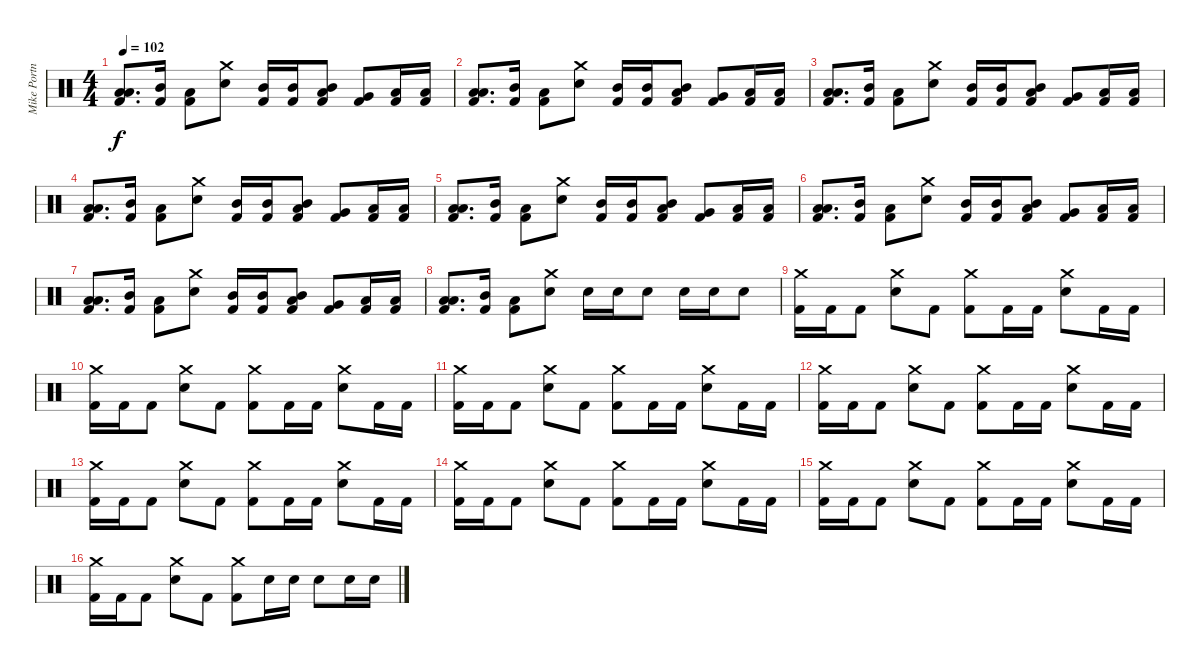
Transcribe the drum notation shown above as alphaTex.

\track ("Mike Portnoy Drum " "Mike Portn") {instrument percussion}
\staff {score}
\articulation defaults
\ts (4 4)
\tempo 102
\clef neutral
\ks c
("Low Tom (hit)" "Low Floor Tom (hit)" "Kick (hit) 2").8{d dy f} ("Mid Tom (hit)" "Kick (hit) 2").16 ("Low Floor Tom (hit)" "Kick (hit) 2").8 ("Crash medium (hit)" "Electric Snare (hit)").8 ("Mid Tom (hit)" "Kick (hit) 2").16 ("Mid Tom (hit)" "Kick (hit) 2").16 ("Mid Tom (hit)" "Low Tom (hit)" "Kick (hit) 2").8 ("Very Low Tom (hit)" "Kick (hit) 2").8 ("Low Floor Tom (hit)" "Kick (hit) 2").16 ("Low Floor Tom (hit)" "Kick (hit) 2").16 |
("Low Tom (hit)" "Low Floor Tom (hit)" "Kick (hit) 2").8{d} ("Mid Tom (hit)" "Kick (hit) 2").16 ("Low Floor Tom (hit)" "Kick (hit) 2").8 ("Crash medium (hit)" "Electric Snare (hit)").8 ("Mid Tom (hit)" "Kick (hit) 2").16 ("Mid Tom (hit)" "Kick (hit) 2").16 ("Mid Tom (hit)" "Low Tom (hit)" "Kick (hit) 2").8 ("Very Low Tom (hit)" "Kick (hit) 2").8 ("Low Floor Tom (hit)" "Kick (hit) 2").16 ("Low Floor Tom (hit)" "Kick (hit) 2").16 |
("Low Tom (hit)" "Low Floor Tom (hit)" "Kick (hit) 2").8{d} ("Mid Tom (hit)" "Kick (hit) 2").16 ("Low Floor Tom (hit)" "Kick (hit) 2").8 ("Crash medium (hit)" "Electric Snare (hit)").8 ("Mid Tom (hit)" "Kick (hit) 2").16 ("Mid Tom (hit)" "Kick (hit) 2").16 ("Mid Tom (hit)" "Low Tom (hit)" "Kick (hit) 2").8 ("Very Low Tom (hit)" "Kick (hit) 2").8 ("Low Floor Tom (hit)" "Kick (hit) 2").16 ("Low Floor Tom (hit)" "Kick (hit) 2").16 |
("Low Tom (hit)" "Low Floor Tom (hit)" "Kick (hit) 2").8{d} ("Mid Tom (hit)" "Kick (hit) 2").16 ("Low Floor Tom (hit)" "Kick (hit) 2").8 ("Crash medium (hit)" "Electric Snare (hit)").8 ("Mid Tom (hit)" "Kick (hit) 2").16 ("Mid Tom (hit)" "Kick (hit) 2").16 ("Mid Tom (hit)" "Low Tom (hit)" "Kick (hit) 2").8 ("Very Low Tom (hit)" "Kick (hit) 2").8 ("Low Floor Tom (hit)" "Kick (hit) 2").16 ("Low Floor Tom (hit)" "Kick (hit) 2").16 |
("Low Tom (hit)" "Low Floor Tom (hit)" "Kick (hit) 2").8{d} ("Mid Tom (hit)" "Kick (hit) 2").16 ("Low Floor Tom (hit)" "Kick (hit) 2").8 ("Crash medium (hit)" "Electric Snare (hit)").8 ("Mid Tom (hit)" "Kick (hit) 2").16 ("Mid Tom (hit)" "Kick (hit) 2").16 ("Mid Tom (hit)" "Low Tom (hit)" "Kick (hit) 2").8 ("Very Low Tom (hit)" "Kick (hit) 2").8 ("Low Floor Tom (hit)" "Kick (hit) 2").16 ("Low Floor Tom (hit)" "Kick (hit) 2").16 |
("Low Tom (hit)" "Low Floor Tom (hit)" "Kick (hit) 2").8{d} ("Mid Tom (hit)" "Kick (hit) 2").16 ("Low Floor Tom (hit)" "Kick (hit) 2").8 ("Crash medium (hit)" "Electric Snare (hit)").8 ("Mid Tom (hit)" "Kick (hit) 2").16 ("Mid Tom (hit)" "Kick (hit) 2").16 ("Mid Tom (hit)" "Low Tom (hit)" "Kick (hit) 2").8 ("Very Low Tom (hit)" "Kick (hit) 2").8 ("Low Floor Tom (hit)" "Kick (hit) 2").16 ("Low Floor Tom (hit)" "Kick (hit) 2").16 |
("Low Tom (hit)" "Low Floor Tom (hit)" "Kick (hit) 2").8{d} ("Mid Tom (hit)" "Kick (hit) 2").16 ("Low Floor Tom (hit)" "Kick (hit) 2").8 ("Crash medium (hit)" "Electric Snare (hit)").8 ("Mid Tom (hit)" "Kick (hit) 2").16 ("Mid Tom (hit)" "Kick (hit) 2").16 ("Mid Tom (hit)" "Low Tom (hit)" "Kick (hit) 2").8 ("Very Low Tom (hit)" "Kick (hit) 2").8 ("Low Floor Tom (hit)" "Kick (hit) 2").16 ("Low Floor Tom (hit)" "Kick (hit) 2").16 |
("Low Tom (hit)" "Low Floor Tom (hit)" "Kick (hit) 2").8{d} ("Mid Tom (hit)" "Kick (hit) 2").16 ("Low Floor Tom (hit)" "Kick (hit) 2").8 ("Crash medium (hit)" "Electric Snare (hit)").8 "Electric Snare (hit)".16 "Electric Snare (hit)".16 "Electric Snare (hit)".8 "Electric Snare (hit)".16 "Electric Snare (hit)".16 "Electric Snare (hit)".8 |
("Crash medium (hit)" "Kick (hit) 2").16 "Kick (hit) 2".16 "Kick (hit) 2".8 ("Crash medium (hit)" "Electric Snare (hit)").8 "Kick (hit) 2".8 ("Crash medium (hit)" "Kick (hit) 2").8 "Kick (hit) 2".16 "Kick (hit) 2".16 ("Crash medium (hit)" "Electric Snare (hit)").8 "Kick (hit) 2".16 "Kick (hit) 2".16 |
("Crash medium (hit)" "Kick (hit) 2").16 "Kick (hit) 2".16 "Kick (hit) 2".8 ("Crash medium (hit)" "Electric Snare (hit)").8 "Kick (hit) 2".8 ("Crash medium (hit)" "Kick (hit) 2").8 "Kick (hit) 2".16 "Kick (hit) 2".16 ("Crash medium (hit)" "Electric Snare (hit)").8 "Kick (hit) 2".16 "Kick (hit) 2".16 |
("Crash medium (hit)" "Kick (hit) 2").16 "Kick (hit) 2".16 "Kick (hit) 2".8 ("Crash medium (hit)" "Electric Snare (hit)").8 "Kick (hit) 2".8 ("Crash medium (hit)" "Kick (hit) 2").8 "Kick (hit) 2".16 "Kick (hit) 2".16 ("Crash medium (hit)" "Electric Snare (hit)").8 "Kick (hit) 2".16 "Kick (hit) 2".16 |
("Crash medium (hit)" "Kick (hit) 2").16 "Kick (hit) 2".16 "Kick (hit) 2".8 ("Crash medium (hit)" "Electric Snare (hit)").8 "Kick (hit) 2".8 ("Crash medium (hit)" "Kick (hit) 2").8 "Kick (hit) 2".16 "Kick (hit) 2".16 ("Crash medium (hit)" "Electric Snare (hit)").8 "Kick (hit) 2".16 "Kick (hit) 2".16 |
("Crash medium (hit)" "Kick (hit) 2").16 "Kick (hit) 2".16 "Kick (hit) 2".8 ("Crash medium (hit)" "Electric Snare (hit)").8 "Kick (hit) 2".8 ("Crash medium (hit)" "Kick (hit) 2").8 "Kick (hit) 2".16 "Kick (hit) 2".16 ("Crash medium (hit)" "Electric Snare (hit)").8 "Kick (hit) 2".16 "Kick (hit) 2".16 |
("Crash medium (hit)" "Kick (hit) 2").16 "Kick (hit) 2".16 "Kick (hit) 2".8 ("Crash medium (hit)" "Electric Snare (hit)").8 "Kick (hit) 2".8 ("Crash medium (hit)" "Kick (hit) 2").8 "Kick (hit) 2".16 "Kick (hit) 2".16 ("Crash medium (hit)" "Electric Snare (hit)").8 "Kick (hit) 2".16 "Kick (hit) 2".16 |
("Crash medium (hit)" "Kick (hit) 2").16 "Kick (hit) 2".16 "Kick (hit) 2".8 ("Crash medium (hit)" "Electric Snare (hit)").8 "Kick (hit) 2".8 ("Crash medium (hit)" "Kick (hit) 2").8 "Kick (hit) 2".16 "Kick (hit) 2".16 ("Crash medium (hit)" "Electric Snare (hit)").8 "Kick (hit) 2".16 "Kick (hit) 2".16 |
("Crash medium (hit)" "Kick (hit) 2").16 "Kick (hit) 2".16 "Kick (hit) 2".8 ("Crash medium (hit)" "Electric Snare (hit)").8 "Kick (hit) 2".8 ("Crash medium (hit)" "Kick (hit) 2").8 "Electric Snare (hit)".16 "Electric Snare (hit)".16 "Electric Snare (hit)".8 "Electric Snare (hit)".16 "Electric Snare (hit)".16
